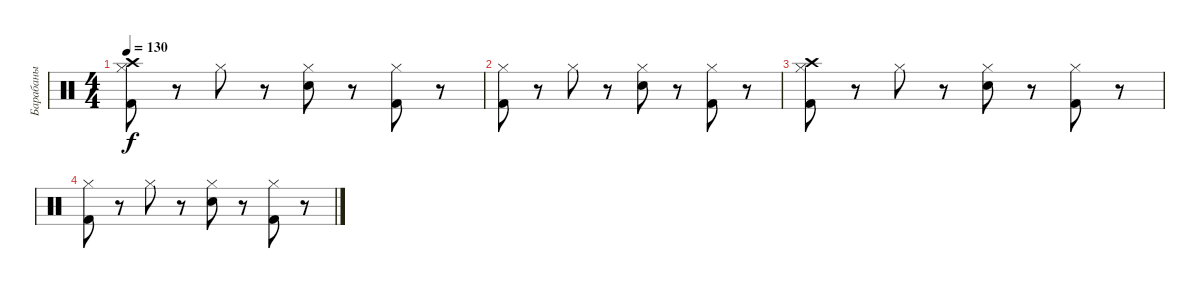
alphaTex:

\track ("Барабаны" "Барабаны") {instrument percussion}
\staff {score}
\articulation defaults
\ts (4 4)
\tempo 130
\clef neutral
\ks c
("Kick (hit) 2" "Hi-Hat (closed)" "Crash high (hit)").8{dy f} r.8 "Hi-Hat (closed)".8 r.8 ("Hi-Hat (closed)" "Electric Snare (hit)").8 r.8 ("Hi-Hat (closed)" "Kick (hit) 2").8 r.8 |
("Kick (hit) 2" "Hi-Hat (closed)").8 r.8 "Hi-Hat (closed)".8 r.8 ("Hi-Hat (closed)" "Electric Snare (hit)").8 r.8 ("Hi-Hat (closed)" "Kick (hit) 2").8 r.8 |
("Kick (hit) 2" "Hi-Hat (closed)" "Crash high (hit)").8 r.8 "Hi-Hat (closed)".8 r.8 ("Hi-Hat (closed)" "Electric Snare (hit)").8 r.8 ("Hi-Hat (closed)" "Kick (hit) 2").8 r.8 |
("Kick (hit) 2" "Hi-Hat (closed)").8 r.8 "Hi-Hat (closed)".8 r.8 ("Hi-Hat (closed)" "Electric Snare (hit)").8 r.8 ("Hi-Hat (closed)" "Kick (hit) 2").8 r.8
